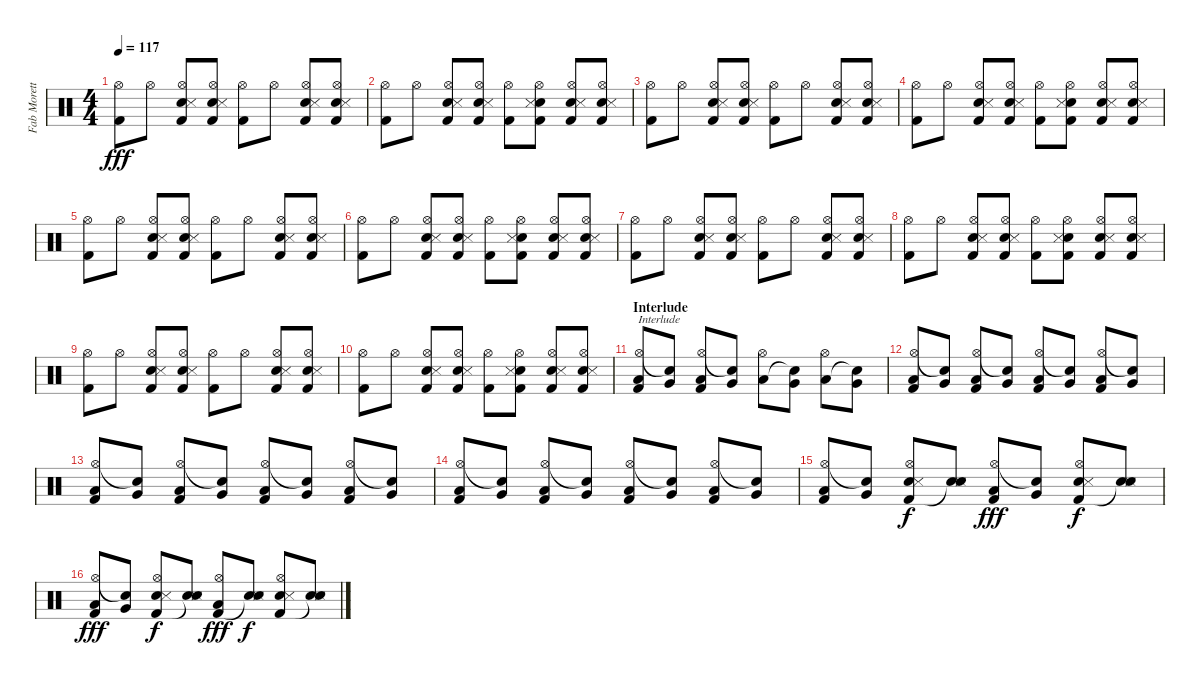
\track ("Fab Moretti" "Fab Morett") {instrument percussion}
\staff {score}
\articulation defaults
\ts (4 4)
\tempo 117
\clef neutral
\ks c
("Kick (hit) 2" "Hi-Hat (open)").8{dy fff} "Hi-Hat (open)".8 ("Snare (hit) 2" "Snare (side stick) 3" "Kick (hit) 2" "Hi-Hat (open)").8 ("Snare (hit) 2" "Snare (side stick) 3" "Kick (hit) 2" "Hi-Hat (open)").8 ("Kick (hit) 2" "Hi-Hat (open)").8 "Hi-Hat (open)".8 ("Snare (hit) 2" "Snare (side stick) 3" "Kick (hit) 2" "Hi-Hat (open)").8 ("Snare (hit) 2" "Snare (side stick) 3" "Kick (hit) 2" "Hi-Hat (open)").8 |
("Kick (hit) 2" "Hi-Hat (open)").8 "Hi-Hat (open)".8 ("Snare (hit) 2" "Snare (side stick) 3" "Kick (hit) 2" "Hi-Hat (open)").8 ("Snare (hit) 2" "Snare (side stick) 3" "Kick (hit) 2" "Hi-Hat (open)").8 ("Kick (hit) 2" "Hi-Hat (open)").8 ("Snare (hit) 2" "Snare (side stick) 3" "Kick (hit) 2" "Hi-Hat (open)").8 ("Snare (hit) 2" "Snare (side stick) 3" "Kick (hit) 2" "Hi-Hat (open)").8 ("Snare (hit) 2" "Snare (side stick) 3" "Kick (hit) 2" "Hi-Hat (open)").8 |
("Kick (hit) 2" "Hi-Hat (open)").8 "Hi-Hat (open)".8 ("Snare (hit) 2" "Snare (side stick) 3" "Kick (hit) 2" "Hi-Hat (open)").8 ("Snare (hit) 2" "Snare (side stick) 3" "Kick (hit) 2" "Hi-Hat (open)").8 ("Kick (hit) 2" "Hi-Hat (open)").8 "Hi-Hat (open)".8 ("Snare (hit) 2" "Snare (side stick) 3" "Kick (hit) 2" "Hi-Hat (open)").8 ("Snare (hit) 2" "Snare (side stick) 3" "Kick (hit) 2" "Hi-Hat (open)").8 |
("Kick (hit) 2" "Hi-Hat (open)").8 "Hi-Hat (open)".8 ("Snare (hit) 2" "Snare (side stick) 3" "Kick (hit) 2" "Hi-Hat (open)").8 ("Snare (hit) 2" "Snare (side stick) 3" "Kick (hit) 2" "Hi-Hat (open)").8 ("Kick (hit) 2" "Hi-Hat (open)").8 ("Snare (hit) 2" "Snare (side stick) 3" "Kick (hit) 2" "Hi-Hat (open)").8 ("Snare (hit) 2" "Snare (side stick) 3" "Kick (hit) 2" "Hi-Hat (open)").8 ("Snare (hit) 2" "Snare (side stick) 3" "Kick (hit) 2" "Hi-Hat (open)").8 |
("Kick (hit) 2" "Hi-Hat (open)").8 "Hi-Hat (open)".8 ("Snare (hit) 2" "Snare (side stick) 3" "Kick (hit) 2" "Hi-Hat (open)").8 ("Snare (hit) 2" "Snare (side stick) 3" "Kick (hit) 2" "Hi-Hat (open)").8 ("Kick (hit) 2" "Hi-Hat (open)").8 "Hi-Hat (open)".8 ("Snare (hit) 2" "Snare (side stick) 3" "Kick (hit) 2" "Hi-Hat (open)").8 ("Snare (hit) 2" "Snare (side stick) 3" "Kick (hit) 2" "Hi-Hat (open)").8 |
("Kick (hit) 2" "Hi-Hat (open)").8 "Hi-Hat (open)".8 ("Snare (hit) 2" "Snare (side stick) 3" "Kick (hit) 2" "Hi-Hat (open)").8 ("Snare (hit) 2" "Snare (side stick) 3" "Kick (hit) 2" "Hi-Hat (open)").8 ("Kick (hit) 2" "Hi-Hat (open)").8 ("Snare (hit) 2" "Snare (side stick) 3" "Kick (hit) 2" "Hi-Hat (open)").8 ("Snare (hit) 2" "Snare (side stick) 3" "Kick (hit) 2" "Hi-Hat (open)").8 ("Snare (hit) 2" "Snare (side stick) 3" "Kick (hit) 2" "Hi-Hat (open)").8 |
("Kick (hit) 2" "Hi-Hat (open)").8 "Hi-Hat (open)".8 ("Snare (hit) 2" "Snare (side stick) 3" "Kick (hit) 2" "Hi-Hat (open)").8 ("Snare (hit) 2" "Snare (side stick) 3" "Kick (hit) 2" "Hi-Hat (open)").8 ("Kick (hit) 2" "Hi-Hat (open)").8 "Hi-Hat (open)".8 ("Snare (hit) 2" "Snare (side stick) 3" "Kick (hit) 2" "Hi-Hat (open)").8 ("Snare (hit) 2" "Snare (side stick) 3" "Kick (hit) 2" "Hi-Hat (open)").8 |
("Kick (hit) 2" "Hi-Hat (open)").8 "Hi-Hat (open)".8 ("Snare (hit) 2" "Snare (side stick) 3" "Kick (hit) 2" "Hi-Hat (open)").8 ("Snare (hit) 2" "Snare (side stick) 3" "Kick (hit) 2" "Hi-Hat (open)").8 ("Kick (hit) 2" "Hi-Hat (open)").8 ("Snare (hit) 2" "Snare (side stick) 3" "Kick (hit) 2" "Hi-Hat (open)").8 ("Snare (hit) 2" "Snare (side stick) 3" "Kick (hit) 2" "Hi-Hat (open)").8 ("Snare (hit) 2" "Snare (side stick) 3" "Kick (hit) 2" "Hi-Hat (open)").8 |
("Kick (hit) 2" "Hi-Hat (open)").8 "Hi-Hat (open)".8 ("Snare (hit) 2" "Snare (side stick) 3" "Kick (hit) 2" "Hi-Hat (open)").8 ("Snare (hit) 2" "Snare (side stick) 3" "Kick (hit) 2" "Hi-Hat (open)").8 ("Kick (hit) 2" "Hi-Hat (open)").8 "Hi-Hat (open)".8 ("Snare (hit) 2" "Snare (side stick) 3" "Kick (hit) 2" "Hi-Hat (open)").8 ("Snare (hit) 2" "Snare (side stick) 3" "Kick (hit) 2" "Hi-Hat (open)").8 |
("Kick (hit) 2" "Hi-Hat (open)").8 "Hi-Hat (open)".8 ("Snare (hit) 2" "Snare (side stick) 3" "Kick (hit) 2" "Hi-Hat (open)").8 ("Snare (hit) 2" "Snare (side stick) 3" "Kick (hit) 2" "Hi-Hat (open)").8 ("Kick (hit) 2" "Hi-Hat (open)").8 ("Snare (hit) 2" "Snare (side stick) 3" "Kick (hit) 2" "Hi-Hat (open)").8 ("Snare (hit) 2" "Snare (side stick) 3" "Kick (hit) 2" "Hi-Hat (open)").8 ("Snare (hit) 2" "Snare (side stick) 3" "Kick (hit) 2" "Hi-Hat (open)").8 |
\section ("" "Interlude")
("Kick (hit) 2" "Hi-Hat (open)" "Low Floor Tom (hit)").8{txt "Interlude"} ("Very Low Tom (hit)" "Snare (hit)"{t}).8 ("Kick (hit) 2" "Hi-Hat (open)" "Low Floor Tom (hit)").8 ("Very Low Tom (hit)" "Snare (hit)"{t}).8 ("Hi-Hat (open)" "Low Floor Tom (hit)").8 ("Very Low Tom (hit)" "Snare (hit)"{t}).8 ("Hi-Hat (open)" "Low Floor Tom (hit)").8 ("Very Low Tom (hit)" "Snare (hit)"{t}).8 |
("Kick (hit) 2" "Hi-Hat (open)" "Low Floor Tom (hit)").8 ("Very Low Tom (hit)" "Snare (hit)"{t}).8 ("Kick (hit) 2" "Hi-Hat (open)" "Low Floor Tom (hit)").8 ("Very Low Tom (hit)" "Snare (hit)"{t}).8 ("Kick (hit) 2" "Hi-Hat (open)" "Low Floor Tom (hit)").8 ("Very Low Tom (hit)" "Snare (hit)"{t}).8 ("Kick (hit) 2" "Hi-Hat (open)" "Low Floor Tom (hit)").8 ("Very Low Tom (hit)" "Snare (hit)"{t}).8 |
("Kick (hit) 2" "Hi-Hat (open)" "Low Floor Tom (hit)").8 ("Very Low Tom (hit)" "Snare (hit)"{t}).8 ("Kick (hit) 2" "Hi-Hat (open)" "Low Floor Tom (hit)").8 ("Very Low Tom (hit)" "Snare (hit)"{t}).8 ("Kick (hit) 2" "Hi-Hat (open)" "Low Floor Tom (hit)").8 ("Very Low Tom (hit)" "Snare (hit)"{t}).8 ("Kick (hit) 2" "Hi-Hat (open)" "Low Floor Tom (hit)").8 ("Very Low Tom (hit)" "Snare (hit)"{t}).8 |
("Kick (hit) 2" "Hi-Hat (open)" "Low Floor Tom (hit)").8 ("Very Low Tom (hit)" "Snare (hit)"{t}).8 ("Kick (hit) 2" "Hi-Hat (open)" "Low Floor Tom (hit)").8 ("Very Low Tom (hit)" "Snare (hit)"{t}).8 ("Kick (hit) 2" "Hi-Hat (open)" "Low Floor Tom (hit)").8 ("Very Low Tom (hit)" "Snare (hit)"{t}).8 ("Kick (hit) 2" "Hi-Hat (open)" "Low Floor Tom (hit)").8 ("Very Low Tom (hit)" "Snare (hit)"{t}).8 |
("Kick (hit) 2" "Hi-Hat (open)" "Low Floor Tom (hit)").8 ("Very Low Tom (hit)" "Snare (hit)"{t}).8 ("Kick (hit) 2" "Hi-Hat (open)" "Snare (hit) 2" "Snare (side stick) 3").8{dy f} ("Snare (hit)"{t} "Snare (side stick) 3" "Snare (hit) 2").8 ("Kick (hit) 2" "Hi-Hat (open)" "Low Floor Tom (hit)").8{dy fff} ("Very Low Tom (hit)" "Snare (hit)"{t}).8 ("Kick (hit) 2" "Hi-Hat (open)" "Snare (hit) 2" "Snare (side stick) 3").8{dy f} ("Snare (hit)"{t} "Snare (side stick) 3" "Snare (hit) 2").8 |
("Kick (hit) 2" "Hi-Hat (open)" "Low Floor Tom (hit)").8{dy fff} ("Very Low Tom (hit)" "Snare (hit)"{t}).8 ("Kick (hit) 2" "Hi-Hat (open)" "Snare (hit) 2" "Snare (side stick) 3").8{dy f} ("Snare (hit)"{t} "Snare (side stick) 3" "Snare (hit) 2").8 ("Kick (hit) 2" "Hi-Hat (open)" "Low Floor Tom (hit)").8{dy fff} ("Snare (hit)"{t} "Snare (hit) 2" "Snare (side stick) 3").8{dy f} ("Kick (hit) 2" "Hi-Hat (open)" "Snare (hit) 2" "Snare (side stick) 3").8 ("Snare (hit)"{t} "Snare (hit) 2" "Snare (side stick) 3").8
